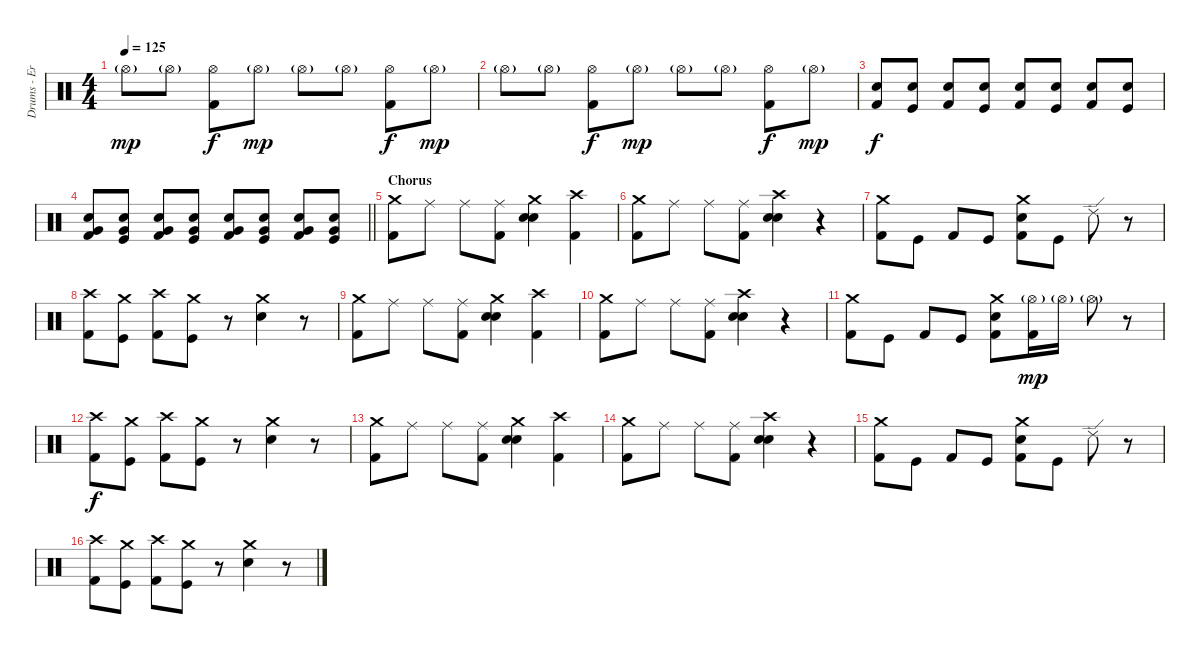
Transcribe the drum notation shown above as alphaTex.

\track ("Drums - Eric Young" "Drums - Er") {instrument percussion}
\staff {score}
\articulation defaults
\ts (4 4)
\tempo 125
\clef neutral
\ks c "Hi-Hat (open)"{g}.8{dy mp} "Hi-Hat (open)"{g}.8
("Hi-Hat (open)" "Kick (hit) 2").8{dy f} "Hi-Hat (open)"{g}.8{dy mp} "Hi-Hat (open)"{g}.8 "Hi-Hat (open)"{g}.8 ("Hi-Hat (open)" "Kick (hit) 2").8{dy f} "Hi-Hat (open)"{g}.8{dy mp} |
"Hi-Hat (open)"{g}.8 "Hi-Hat (open)"{g}.8 ("Hi-Hat (open)" "Kick (hit) 2").8{dy f} "Hi-Hat (open)"{g}.8{dy mp} "Hi-Hat (open)"{g}.8 "Hi-Hat (open)"{g}.8 ("Hi-Hat (open)" "Kick (hit) 2").8{dy f} "Hi-Hat (open)"{g}.8{dy mp} |
("Electric Snare (hit)" "Kick (hit) 2").8{dy f} ("Electric Snare (hit)" "Kick (hit)").8 ("Electric Snare (hit)" "Kick (hit) 2").8 ("Electric Snare (hit)" "Kick (hit)").8 ("Electric Snare (hit)" "Kick (hit) 2").8 ("Electric Snare (hit)" "Kick (hit)").8 ("Electric Snare (hit)" "Kick (hit) 2").8 ("Electric Snare (hit)" "Kick (hit)").8 |
\barLineRight lightlight
("Electric Snare (hit)" "Very Low Tom (hit)" "Kick (hit) 2").8 ("Electric Snare (hit)" "Very Low Tom (hit)" "Kick (hit)").8 ("Electric Snare (hit)" "Very Low Tom (hit)" "Kick (hit) 2").8 ("Electric Snare (hit)" "Very Low Tom (hit)" "Kick (hit)").8 ("Electric Snare (hit)" "Very Low Tom (hit)" "Kick (hit) 2").8 ("Electric Snare (hit)" "Very Low Tom (hit)" "Kick (hit)").8 ("Electric Snare (hit)" "Very Low Tom (hit)" "Kick (hit) 2").8 ("Electric Snare (hit)" "Very Low Tom (hit)" "Kick (hit)").8 |
\section ("" "Chorus")
("Crash medium (hit)" "Kick (hit) 2").8 "Ride (middle)".8 "Ride (middle)".8 ("Ride (middle)" "Kick (hit) 2").8 ("Crash medium (hit)" "Snare (hit) 2" "Electric Snare (hit)").4 ("Crash high (hit)" "Kick (hit) 2").4 |
("Crash medium (hit)" "Kick (hit) 2").8 "Ride (middle)".8 "Ride (middle)".8 ("Ride (middle)" "Kick (hit) 2").8 ("Crash high (hit)" "Electric Snare (hit)" "Snare (hit) 2").4 r.4 |
("Crash medium (hit)" "Kick (hit) 2").8 "Kick (hit)".8 "Kick (hit) 2".8 "Kick (hit)".8 ("Crash medium (hit)" "Electric Snare (hit)" "Kick (hit) 2").8 "Kick (hit)".8 "Ride (edge) 2".8 r.8 |
("Crash high (hit)" "Kick (hit) 2").8 ("Crash medium (hit)" "Kick (hit)").8 ("Crash high (hit)" "Kick (hit) 2").8 ("Crash medium (hit)" "Kick (hit)").8 r.8 ("Crash medium (hit)" "Electric Snare (hit)").4 r.8 |
("Crash medium (hit)" "Kick (hit) 2").8 "Ride (middle)".8 "Ride (middle)".8 ("Ride (middle)" "Kick (hit) 2").8 ("Crash medium (hit)" "Snare (hit) 2" "Electric Snare (hit)").4 ("Crash high (hit)" "Kick (hit) 2").4 |
("Crash medium (hit)" "Kick (hit) 2").8 "Ride (middle)".8 "Ride (middle)".8 ("Ride (middle)" "Kick (hit) 2").8 ("Crash high (hit)" "Electric Snare (hit)" "Snare (hit) 2").4 r.4 |
("Crash medium (hit)" "Kick (hit) 2").8 "Kick (hit)".8 "Kick (hit) 2".8 "Kick (hit)".8 ("Crash medium (hit)" "Electric Snare (hit)" "Kick (hit) 2").8 ("Hi-Hat (open)"{g} "Kick (hit) 2").16{dy mp} "Hi-Hat (open)"{g}.16 "Hi-Hat (open)"{g}.8 r.8 |
("Crash high (hit)" "Kick (hit) 2").8{dy f} ("Crash medium (hit)" "Kick (hit)").8 ("Crash high (hit)" "Kick (hit) 2").8 ("Crash medium (hit)" "Kick (hit)").8 r.8 ("Crash medium (hit)" "Electric Snare (hit)").4 r.8 |
("Crash medium (hit)" "Kick (hit) 2").8 "Ride (middle)".8 "Ride (middle)".8 ("Ride (middle)" "Kick (hit) 2").8 ("Crash medium (hit)" "Snare (hit) 2" "Electric Snare (hit)").4 ("Crash high (hit)" "Kick (hit) 2").4 |
("Crash medium (hit)" "Kick (hit) 2").8 "Ride (middle)".8 "Ride (middle)".8 ("Ride (middle)" "Kick (hit) 2").8 ("Crash high (hit)" "Electric Snare (hit)" "Snare (hit) 2").4 r.4 |
("Crash medium (hit)" "Kick (hit) 2").8 "Kick (hit)".8 "Kick (hit) 2".8 "Kick (hit)".8 ("Crash medium (hit)" "Electric Snare (hit)" "Kick (hit) 2").8 "Kick (hit)".8 "Ride (edge) 2".8 r.8 |
("Crash high (hit)" "Kick (hit) 2").8 ("Crash medium (hit)" "Kick (hit)").8 ("Crash high (hit)" "Kick (hit) 2").8 ("Crash medium (hit)" "Kick (hit)").8 r.8 ("Crash medium (hit)" "Electric Snare (hit)").4 r.8
